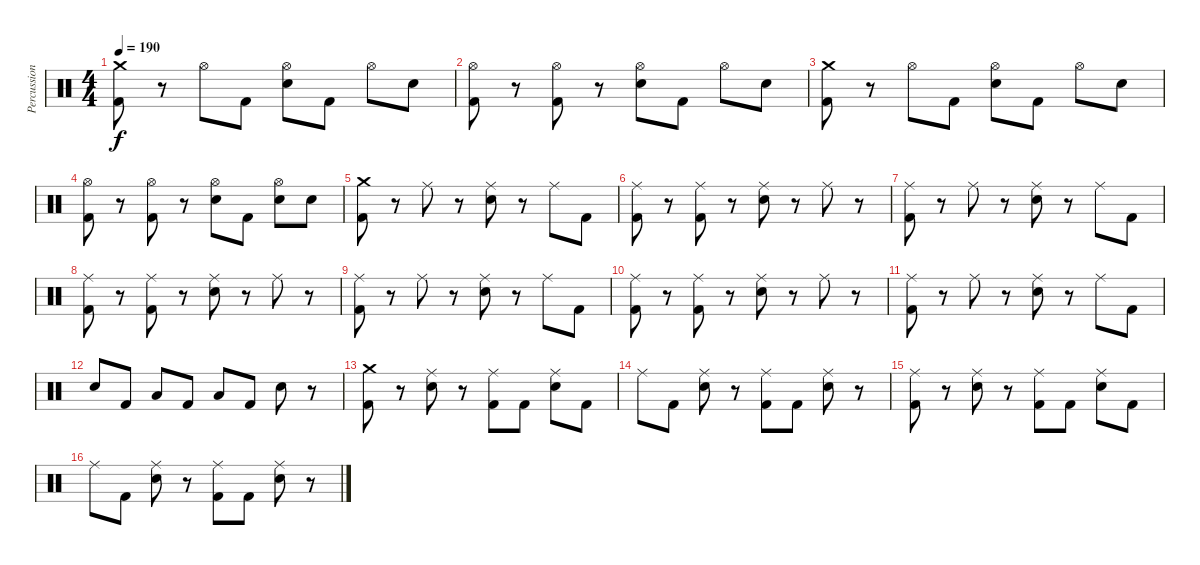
\track ("Percussion" "Percussion") {instrument percussion}
\staff {score}
\articulation defaults
\ts (4 4)
\tempo 190
\clef neutral
\ks c
("Crash medium (hit)" "Kick (hit) 2").8{dy f} r.8 "Hi-Hat (open)".8 "Kick (hit) 2".8 ("Hi-Hat (open)" "Electric Snare (hit)").8 "Kick (hit) 2".8 "Hi-Hat (open)".8 "Electric Snare (hit)".8 |
("Hi-Hat (open)" "Kick (hit) 2").8 r.8 ("Hi-Hat (open)" "Kick (hit) 2").8 r.8 ("Hi-Hat (open)" "Electric Snare (hit)").8 "Kick (hit) 2".8 "Hi-Hat (open)".8 "Electric Snare (hit)".8 |
("Crash medium (hit)" "Kick (hit) 2").8 r.8 "Hi-Hat (open)".8 "Kick (hit) 2".8 ("Hi-Hat (open)" "Electric Snare (hit)").8 "Kick (hit) 2".8 "Hi-Hat (open)".8 "Electric Snare (hit)".8 |
("Hi-Hat (open)" "Kick (hit) 2").8 r.8 ("Hi-Hat (open)" "Kick (hit) 2").8 r.8 ("Hi-Hat (open)" "Electric Snare (hit)").8 "Kick (hit) 2".8 ("Hi-Hat (open)" "Electric Snare (hit)").8 "Electric Snare (hit)".8 |
("Crash medium (hit)" "Kick (hit) 2").8 r.8 "Ride (middle)".8 r.8 ("Ride (middle)" "Electric Snare (hit)").8 r.8 "Ride (middle)".8 "Kick (hit) 2".8 |
("Ride (middle)" "Kick (hit) 2").8 r.8 ("Ride (middle)" "Kick (hit) 2").8 r.8 ("Ride (middle)" "Electric Snare (hit)").8 r.8 "Ride (middle)".8 r.8 |
("Ride (middle)" "Kick (hit) 2").8 r.8 "Ride (middle)".8 r.8 ("Ride (middle)" "Electric Snare (hit)").8 r.8 "Ride (middle)".8 "Kick (hit) 2".8 |
("Ride (middle)" "Kick (hit) 2").8 r.8 ("Ride (middle)" "Kick (hit) 2").8 r.8 ("Ride (middle)" "Electric Snare (hit)").8 r.8 "Ride (middle)".8 r.8 |
("Ride (middle)" "Kick (hit) 2").8 r.8 "Ride (middle)".8 r.8 ("Ride (middle)" "Electric Snare (hit)").8 r.8 "Ride (middle)".8 "Kick (hit) 2".8 |
("Ride (middle)" "Kick (hit) 2").8 r.8 ("Ride (middle)" "Kick (hit) 2").8 r.8 ("Ride (middle)" "Electric Snare (hit)").8 r.8 "Ride (middle)".8 r.8 |
("Ride (middle)" "Kick (hit) 2").8 r.8 "Ride (middle)".8 r.8 ("Ride (middle)" "Electric Snare (hit)").8 r.8 "Ride (middle)".8 "Kick (hit) 2".8 |
"Electric Snare (hit)".8 "Kick (hit) 2".8 "Low Tom (hit)".8 "Kick (hit) 2".8 "Low Tom (hit)".8 "Kick (hit) 2".8 "Electric Snare (hit)".8 r.8 |
("Crash medium (hit)" "Kick (hit) 2").8 r.8 ("Ride (middle)" "Electric Snare (hit)").8 r.8 ("Ride (middle)" "Kick (hit) 2").8 "Kick (hit) 2".8 ("Ride (middle)" "Electric Snare (hit)").8 "Kick (hit) 2".8 |
"Ride (middle)".8 "Kick (hit) 2".8 ("Ride (middle)" "Electric Snare (hit)").8 r.8 ("Ride (middle)" "Kick (hit) 2").8 "Kick (hit) 2".8 ("Ride (middle)" "Electric Snare (hit)").8 r.8 |
("Ride (middle)" "Kick (hit) 2").8 r.8 ("Ride (middle)" "Electric Snare (hit)").8 r.8 ("Ride (middle)" "Kick (hit) 2").8 "Kick (hit) 2".8 ("Ride (middle)" "Electric Snare (hit)").8 "Kick (hit) 2".8 |
"Ride (middle)".8 "Kick (hit) 2".8 ("Ride (middle)" "Electric Snare (hit)").8 r.8 ("Ride (middle)" "Kick (hit) 2").8 "Kick (hit) 2".8 ("Ride (middle)" "Electric Snare (hit)").8 r.8
